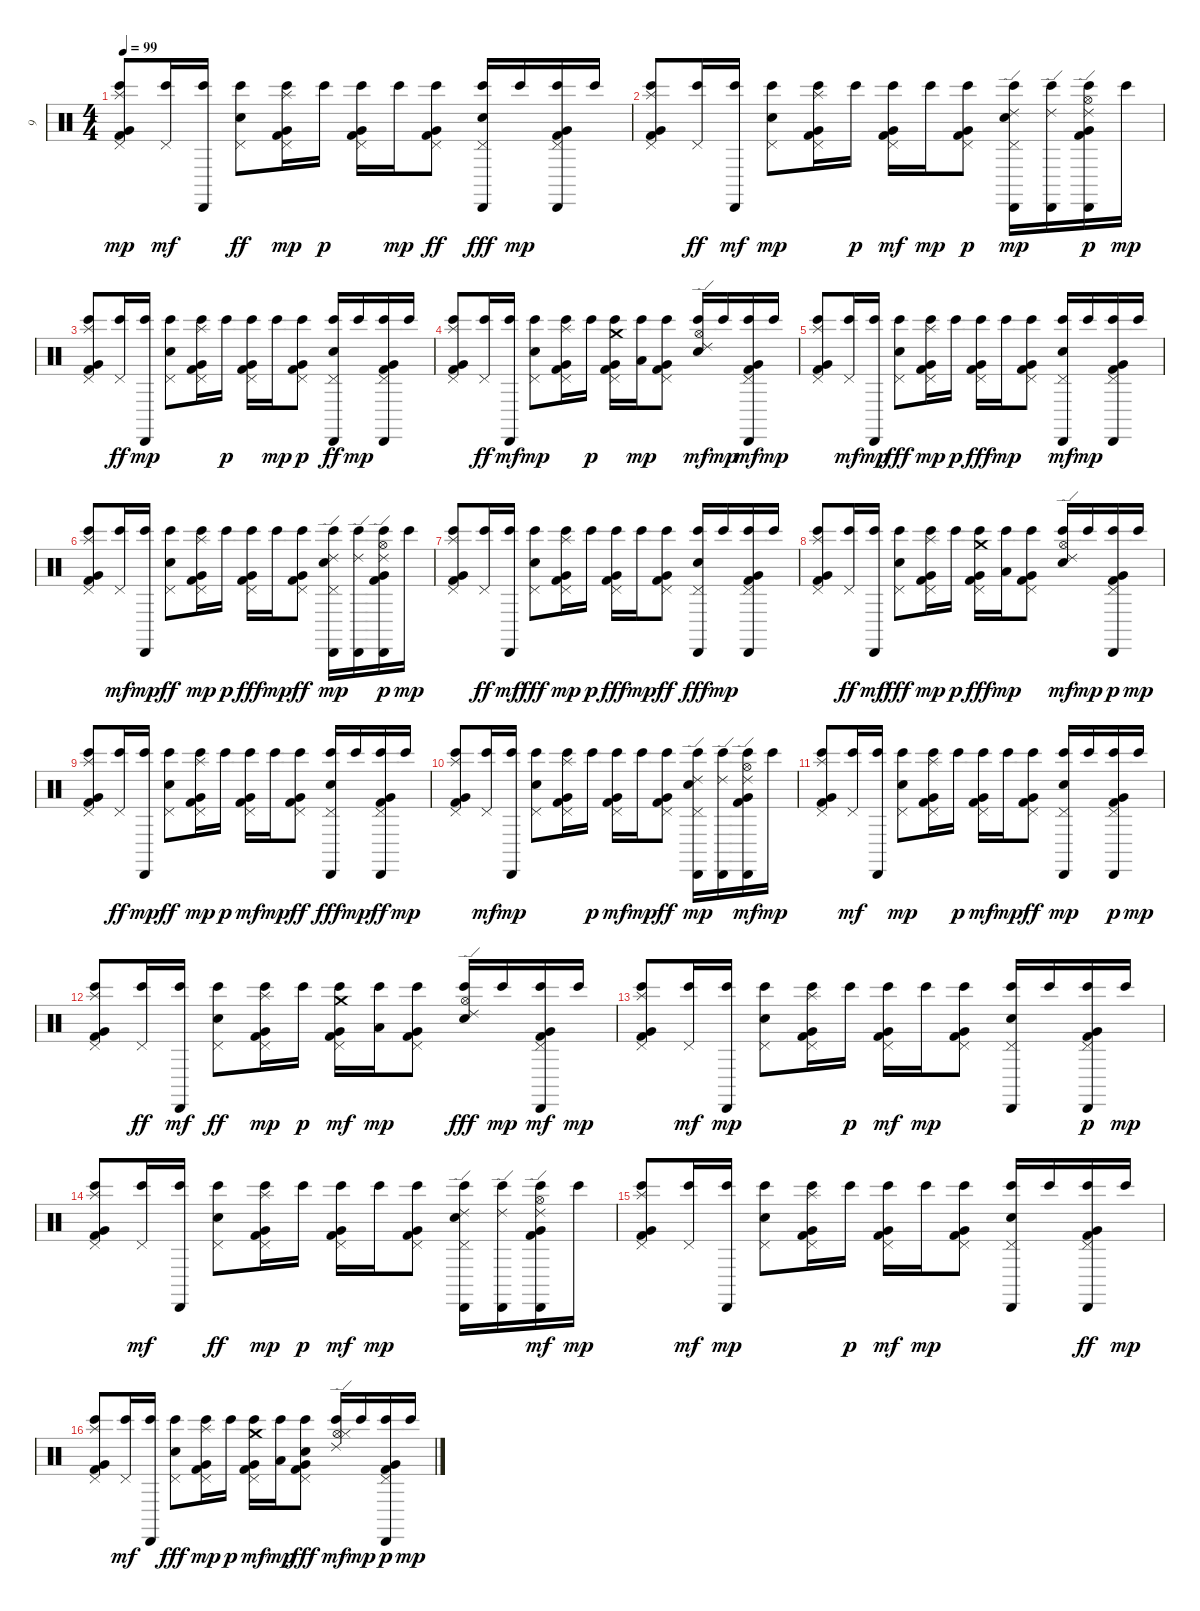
\track ("9" "9") {instrument percussion}
\staff {score}
\articulation defaults
\ts (4 4)
\tempo 99
\clef neutral
\ks c
("Pedal Hi-Hat (hit)" "Very Low Tom (hit)" "Bongo High (hit)" "Kick (hit) 2" "Splash (hit)").8{dy mp} ("Pedal Hi-Hat (hit)" "Bongo High (hit)").16{dy mf} ("Bongo High (hit)" "Cabasa (hit)").16 ("Bongo High (hit)" "Electric Snare (hit)" "Pedal Hi-Hat (hit)").8{dy ff} ("Pedal Hi-Hat (hit)" "Kick (hit) 2" "Bongo High (hit)" "Very Low Tom (hit)" "Splash (hit)").16{dy mp} "Bongo High (hit)".16{dy p} ("Kick (hit) 2" "Bongo High (hit)" "Pedal Hi-Hat (hit)" "Very Low Tom (hit)").16 "Bongo High (hit)".16{dy mp} ("Bongo High (hit)" "Very Low Tom (hit)" "Kick (hit) 2" "Pedal Hi-Hat (hit)").8{dy ff} ("Pedal Hi-Hat (hit)" "Bongo High (hit)" "Cabasa (hit)" "Electric Snare (hit)").16{dy fff} "Bongo High (hit)".16{dy mp} ("Pedal Hi-Hat (hit)" "Kick (hit) 2" "Cabasa (hit)" "Very Low Tom (hit)" "Bongo High (hit)").16 "Bongo High (hit)".16 |
("Bongo High (hit)" "Pedal Hi-Hat (hit)" "Very Low Tom (hit)" "Kick (hit) 2" "Splash (hit)").8 ("Bongo High (hit)" "Pedal Hi-Hat (hit)").16{dy ff} ("Bongo High (hit)" "Cabasa (hit)").16{dy mf} ("Pedal Hi-Hat (hit)" "Electric Snare (hit)" "Bongo High (hit)").8{dy mp} ("Kick (hit) 2" "Very Low Tom (hit)" "Pedal Hi-Hat (hit)" "Bongo High (hit)" "Splash (hit)").16 "Bongo High (hit)".16{dy p} ("Very Low Tom (hit)" "Pedal Hi-Hat (hit)" "Kick (hit) 2" "Bongo High (hit)").16{dy mf} "Bongo High (hit)".16{dy mp} ("Bongo High (hit)" "Pedal Hi-Hat (hit)" "Very Low Tom (hit)" "Kick (hit) 2").8{dy p} ("Pedal Hi-Hat (hit)" "Cabasa (hit)" "Electric Snare (hit)" "Bongo High (hit)" "Ride (edge) 2").16{dy mp} ("Bongo High (hit)" "Ride (edge) 2" "Cabasa (hit)").16 ("Cabasa (hit)" "Hi-Hat (open)" "Ride (edge) 2" "Bongo High (hit)" "Kick (hit) 2" "Very Low Tom (hit)").16{dy p} "Bongo High (hit)".16{dy mp} |
("Bongo High (hit)" "Pedal Hi-Hat (hit)" "Kick (hit) 2" "Very Low Tom (hit)" "Splash (hit)").8 ("Bongo High (hit)" "Pedal Hi-Hat (hit)").16{dy ff} ("Cabasa (hit)" "Bongo High (hit)").16{dy mp} ("Electric Snare (hit)" "Pedal Hi-Hat (hit)" "Bongo High (hit)").8 ("Pedal Hi-Hat (hit)" "Kick (hit) 2" "Bongo High (hit)" "Very Low Tom (hit)" "Splash (hit)").16 "Bongo High (hit)".16{dy p} ("Pedal Hi-Hat (hit)" "Bongo High (hit)" "Kick (hit) 2" "Very Low Tom (hit)").16 "Bongo High (hit)".16{dy mp} ("Bongo High (hit)" "Kick (hit) 2" "Pedal Hi-Hat (hit)" "Very Low Tom (hit)").8{dy p} ("Electric Snare (hit)" "Bongo High (hit)" "Cabasa (hit)" "Pedal Hi-Hat (hit)").16{dy ff} "Bongo High (hit)".16{dy mp} ("Very Low Tom (hit)" "Cabasa (hit)" "Pedal Hi-Hat (hit)" "Kick (hit) 2" "Bongo High (hit)").16 "Bongo High (hit)".16 |
("Bongo High (hit)" "Very Low Tom (hit)" "Kick (hit) 2" "Pedal Hi-Hat (hit)" "Splash (hit)").8 ("Bongo High (hit)" "Pedal Hi-Hat (hit)").16{dy ff} ("Bongo High (hit)" "Cabasa (hit)").16{dy mf} ("Pedal Hi-Hat (hit)" "Electric Snare (hit)" "Bongo High (hit)").8{dy mp} ("Pedal Hi-Hat (hit)" "Very Low Tom (hit)" "Kick (hit) 2" "Bongo High (hit)" "Splash (hit)").16 "Bongo High (hit)".16{dy p} ("Crash medium (hit)" "Pedal Hi-Hat (hit)" "Bongo High (hit)" "Kick (hit) 2" "Very Low Tom (hit)").16 ("Low Tom (hit)" "Bongo High (hit)").16{dy mp} ("Pedal Hi-Hat (hit)" "Kick (hit) 2" "Very Low Tom (hit)" "Bongo High (hit)").8 ("Bongo High (hit)" "Electric Snare (hit)" "Hi-Hat (open)" "Ride (edge) 2").16{dy mf} "Bongo High (hit)".16{dy mp} ("Pedal Hi-Hat (hit)" "Kick (hit) 2" "Very Low Tom (hit)" "Bongo High (hit)" "Cabasa (hit)").16{dy mf} "Bongo High (hit)".16{dy mp} |
("Bongo High (hit)" "Kick (hit) 2" "Pedal Hi-Hat (hit)" "Very Low Tom (hit)" "Splash (hit)").8 ("Pedal Hi-Hat (hit)" "Bongo High (hit)").16{dy mf} ("Cabasa (hit)" "Bongo High (hit)").16{dy mp} ("Bongo High (hit)" "Pedal Hi-Hat (hit)" "Electric Snare (hit)").8{dy fff} ("Kick (hit) 2" "Very Low Tom (hit)" "Pedal Hi-Hat (hit)" "Bongo High (hit)" "Splash (hit)").16{dy mp} "Bongo High (hit)".16{dy p} ("Very Low Tom (hit)" "Bongo High (hit)" "Pedal Hi-Hat (hit)" "Kick (hit) 2").16{dy fff} "Bongo High (hit)".16{dy mp} ("Very Low Tom (hit)" "Pedal Hi-Hat (hit)" "Kick (hit) 2" "Bongo High (hit)").8 ("Electric Snare (hit)" "Bongo High (hit)" "Pedal Hi-Hat (hit)" "Cabasa (hit)").16{dy mf} "Bongo High (hit)".16{dy mp} ("Cabasa (hit)" "Kick (hit) 2" "Very Low Tom (hit)" "Pedal Hi-Hat (hit)" "Bongo High (hit)").16 "Bongo High (hit)".16 |
("Bongo High (hit)" "Kick (hit) 2" "Pedal Hi-Hat (hit)" "Very Low Tom (hit)" "Splash (hit)").8 ("Pedal Hi-Hat (hit)" "Bongo High (hit)").16{dy mf} ("Cabasa (hit)" "Bongo High (hit)").16{dy mp} ("Bongo High (hit)" "Electric Snare (hit)" "Pedal Hi-Hat (hit)").8{dy ff} ("Pedal Hi-Hat (hit)" "Kick (hit) 2" "Very Low Tom (hit)" "Bongo High (hit)" "Splash (hit)").16{dy mp} "Bongo High (hit)".16{dy p} ("Pedal Hi-Hat (hit)" "Bongo High (hit)" "Very Low Tom (hit)" "Kick (hit) 2").16{dy fff} "Bongo High (hit)".16{dy mp} ("Very Low Tom (hit)" "Bongo High (hit)" "Kick (hit) 2" "Pedal Hi-Hat (hit)").8{dy ff} ("Cabasa (hit)" "Electric Snare (hit)" "Ride (edge) 2" "Pedal Hi-Hat (hit)" "Bongo High (hit)").16{dy mp} ("Bongo High (hit)" "Ride (edge) 2" "Cabasa (hit)").16 ("Bongo High (hit)" "Cabasa (hit)" "Ride (edge) 2" "Hi-Hat (open)" "Kick (hit) 2" "Very Low Tom (hit)").16{dy p} "Bongo High (hit)".16{dy mp} |
("Kick (hit) 2" "Bongo High (hit)" "Pedal Hi-Hat (hit)" "Very Low Tom (hit)" "Splash (hit)").8 ("Bongo High (hit)" "Pedal Hi-Hat (hit)").16{dy ff} ("Bongo High (hit)" "Cabasa (hit)").16{dy mf} ("Pedal Hi-Hat (hit)" "Bongo High (hit)" "Electric Snare (hit)").8{dy fff} ("Kick (hit) 2" "Pedal Hi-Hat (hit)" "Very Low Tom (hit)" "Bongo High (hit)" "Splash (hit)").16{dy mp} "Bongo High (hit)".16{dy p} ("Pedal Hi-Hat (hit)" "Very Low Tom (hit)" "Bongo High (hit)" "Kick (hit) 2").16{dy fff} "Bongo High (hit)".16{dy mp} ("Bongo High (hit)" "Very Low Tom (hit)" "Pedal Hi-Hat (hit)" "Kick (hit) 2").8{dy ff} ("Cabasa (hit)" "Pedal Hi-Hat (hit)" "Bongo High (hit)" "Electric Snare (hit)").16{dy fff} "Bongo High (hit)".16{dy mp} ("Cabasa (hit)" "Kick (hit) 2" "Pedal Hi-Hat (hit)" "Very Low Tom (hit)" "Bongo High (hit)").16 "Bongo High (hit)".16 |
("Pedal Hi-Hat (hit)" "Bongo High (hit)" "Kick (hit) 2" "Very Low Tom (hit)" "Splash (hit)").8 ("Bongo High (hit)" "Pedal Hi-Hat (hit)").16{dy ff} ("Bongo High (hit)" "Cabasa (hit)").16{dy mf} ("Bongo High (hit)" "Pedal Hi-Hat (hit)" "Electric Snare (hit)").8{dy fff} ("Kick (hit) 2" "Very Low Tom (hit)" "Pedal Hi-Hat (hit)" "Bongo High (hit)" "Splash (hit)").16{dy mp} "Bongo High (hit)".16{dy p} ("Crash medium (hit)" "Very Low Tom (hit)" "Pedal Hi-Hat (hit)" "Bongo High (hit)" "Kick (hit) 2").16{dy fff} ("Low Tom (hit)" "Bongo High (hit)").16{dy mp} ("Very Low Tom (hit)" "Pedal Hi-Hat (hit)" "Kick (hit) 2" "Bongo High (hit)").8 ("Electric Snare (hit)" "Bongo High (hit)" "Hi-Hat (open)" "Ride (edge) 2").16{dy mf} "Bongo High (hit)".16{dy mp} ("Cabasa (hit)" "Bongo High (hit)" "Pedal Hi-Hat (hit)" "Kick (hit) 2" "Very Low Tom (hit)").16{dy p} "Bongo High (hit)".16{dy mp} |
("Bongo High (hit)" "Very Low Tom (hit)" "Kick (hit) 2" "Pedal Hi-Hat (hit)" "Splash (hit)").8 ("Bongo High (hit)" "Pedal Hi-Hat (hit)").16{dy ff} ("Cabasa (hit)" "Bongo High (hit)").16{dy mp} ("Electric Snare (hit)" "Bongo High (hit)" "Pedal Hi-Hat (hit)").8{dy ff} ("Bongo High (hit)" "Kick (hit) 2" "Pedal Hi-Hat (hit)" "Very Low Tom (hit)" "Splash (hit)").16{dy mp} "Bongo High (hit)".16{dy p} ("Pedal Hi-Hat (hit)" "Very Low Tom (hit)" "Kick (hit) 2" "Bongo High (hit)").16{dy mf} "Bongo High (hit)".16{dy mp} ("Kick (hit) 2" "Very Low Tom (hit)" "Bongo High (hit)" "Pedal Hi-Hat (hit)").8{dy ff} ("Pedal Hi-Hat (hit)" "Cabasa (hit)" "Bongo High (hit)" "Electric Snare (hit)").16{dy fff} "Bongo High (hit)".16{dy mp} ("Bongo High (hit)" "Kick (hit) 2" "Cabasa (hit)" "Very Low Tom (hit)" "Pedal Hi-Hat (hit)").16{dy ff} "Bongo High (hit)".16{dy mp} |
("Kick (hit) 2" "Bongo High (hit)" "Very Low Tom (hit)" "Pedal Hi-Hat (hit)" "Splash (hit)").8 ("Pedal Hi-Hat (hit)" "Bongo High (hit)").16{dy mf} ("Cabasa (hit)" "Bongo High (hit)").16{dy mp} ("Electric Snare (hit)" "Pedal Hi-Hat (hit)" "Bongo High (hit)").8 ("Bongo High (hit)" "Very Low Tom (hit)" "Kick (hit) 2" "Pedal Hi-Hat (hit)" "Splash (hit)").16 "Bongo High (hit)".16{dy p} ("Very Low Tom (hit)" "Pedal Hi-Hat (hit)" "Kick (hit) 2" "Bongo High (hit)").16{dy mf} "Bongo High (hit)".16{dy mp} ("Very Low Tom (hit)" "Bongo High (hit)" "Kick (hit) 2" "Pedal Hi-Hat (hit)").8{dy ff} ("Ride (edge) 2" "Cabasa (hit)" "Pedal Hi-Hat (hit)" "Electric Snare (hit)" "Bongo High (hit)").16{dy mp} ("Bongo High (hit)" "Ride (edge) 2" "Cabasa (hit)").16 ("Hi-Hat (open)" "Kick (hit) 2" "Bongo High (hit)" "Very Low Tom (hit)" "Cabasa (hit)" "Ride (edge) 2").16{dy mf} "Bongo High (hit)".16{dy mp} |
("Very Low Tom (hit)" "Bongo High (hit)" "Kick (hit) 2" "Pedal Hi-Hat (hit)" "Splash (hit)").8 ("Pedal Hi-Hat (hit)" "Bongo High (hit)").16{dy mf} ("Bongo High (hit)" "Cabasa (hit)").16 ("Electric Snare (hit)" "Pedal Hi-Hat (hit)" "Bongo High (hit)").8{dy mp} ("Bongo High (hit)" "Kick (hit) 2" "Very Low Tom (hit)" "Pedal Hi-Hat (hit)" "Splash (hit)").16 "Bongo High (hit)".16{dy p} ("Kick (hit) 2" "Pedal Hi-Hat (hit)" "Very Low Tom (hit)" "Bongo High (hit)").16{dy mf} "Bongo High (hit)".16{dy mp} ("Bongo High (hit)" "Kick (hit) 2" "Very Low Tom (hit)" "Pedal Hi-Hat (hit)").8{dy ff} ("Electric Snare (hit)" "Cabasa (hit)" "Pedal Hi-Hat (hit)" "Bongo High (hit)").16{dy mp} "Bongo High (hit)".16 ("Bongo High (hit)" "Kick (hit) 2" "Cabasa (hit)" "Pedal Hi-Hat (hit)" "Very Low Tom (hit)").16{dy p} "Bongo High (hit)".16{dy mp} |
("Pedal Hi-Hat (hit)" "Kick (hit) 2" "Bongo High (hit)" "Very Low Tom (hit)" "Splash (hit)").8 ("Bongo High (hit)" "Pedal Hi-Hat (hit)").16{dy ff} ("Bongo High (hit)" "Cabasa (hit)").16{dy mf} ("Bongo High (hit)" "Electric Snare (hit)" "Pedal Hi-Hat (hit)").8{dy ff} ("Bongo High (hit)" "Kick (hit) 2" "Pedal Hi-Hat (hit)" "Very Low Tom (hit)" "Splash (hit)").16{dy mp} "Bongo High (hit)".16{dy p} ("Pedal Hi-Hat (hit)" "Crash medium (hit)" "Kick (hit) 2" "Very Low Tom (hit)" "Bongo High (hit)").16{dy mf} ("Bongo High (hit)" "Low Tom (hit)").16{dy mp} ("Very Low Tom (hit)" "Kick (hit) 2" "Pedal Hi-Hat (hit)" "Bongo High (hit)").8 ("Hi-Hat (open)" "Ride (edge) 2" "Bongo High (hit)" "Electric Snare (hit)").16{dy fff} "Bongo High (hit)".16{dy mp} ("Bongo High (hit)" "Kick (hit) 2" "Pedal Hi-Hat (hit)" "Very Low Tom (hit)" "Cabasa (hit)").16{dy mf} "Bongo High (hit)".16{dy mp} |
("Kick (hit) 2" "Bongo High (hit)" "Very Low Tom (hit)" "Pedal Hi-Hat (hit)" "Splash (hit)").8 ("Pedal Hi-Hat (hit)" "Bongo High (hit)").16{dy mf} ("Cabasa (hit)" "Bongo High (hit)").16{dy mp} ("Electric Snare (hit)" "Pedal Hi-Hat (hit)" "Bongo High (hit)").8 ("Bongo High (hit)" "Very Low Tom (hit)" "Kick (hit) 2" "Pedal Hi-Hat (hit)" "Splash (hit)").16 "Bongo High (hit)".16{dy p} ("Very Low Tom (hit)" "Pedal Hi-Hat (hit)" "Kick (hit) 2" "Bongo High (hit)").16{dy mf} "Bongo High (hit)".16{dy mp} ("Pedal Hi-Hat (hit)" "Very Low Tom (hit)" "Kick (hit) 2" "Bongo High (hit)").8 ("Electric Snare (hit)" "Pedal Hi-Hat (hit)" "Cabasa (hit)" "Bongo High (hit)").16 "Bongo High (hit)".16 ("Bongo High (hit)" "Kick (hit) 2" "Cabasa (hit)" "Pedal Hi-Hat (hit)" "Very Low Tom (hit)").16{dy p} "Bongo High (hit)".16{dy mp} |
("Kick (hit) 2" "Very Low Tom (hit)" "Bongo High (hit)" "Pedal Hi-Hat (hit)" "Splash (hit)").8 ("Pedal Hi-Hat (hit)" "Bongo High (hit)").16{dy mf} ("Bongo High (hit)" "Cabasa (hit)").16 ("Electric Snare (hit)" "Bongo High (hit)" "Pedal Hi-Hat (hit)").8{dy ff} ("Very Low Tom (hit)" "Bongo High (hit)" "Pedal Hi-Hat (hit)" "Kick (hit) 2" "Splash (hit)").16{dy mp} "Bongo High (hit)".16{dy p} ("Kick (hit) 2" "Pedal Hi-Hat (hit)" "Very Low Tom (hit)" "Bongo High (hit)").16{dy mf} "Bongo High (hit)".16{dy mp} ("Very Low Tom (hit)" "Pedal Hi-Hat (hit)" "Bongo High (hit)" "Kick (hit) 2").8 ("Cabasa (hit)" "Ride (edge) 2" "Pedal Hi-Hat (hit)" "Electric Snare (hit)" "Bongo High (hit)").16 ("Cabasa (hit)" "Bongo High (hit)" "Ride (edge) 2").16 ("Bongo High (hit)" "Hi-Hat (open)" "Very Low Tom (hit)" "Kick (hit) 2" "Cabasa (hit)" "Ride (edge) 2").16{dy mf} "Bongo High (hit)".16{dy mp} |
("Kick (hit) 2" "Very Low Tom (hit)" "Bongo High (hit)" "Pedal Hi-Hat (hit)" "Splash (hit)").8 ("Pedal Hi-Hat (hit)" "Bongo High (hit)").16{dy mf} ("Cabasa (hit)" "Bongo High (hit)").16{dy mp} ("Pedal Hi-Hat (hit)" "Electric Snare (hit)" "Bongo High (hit)").8 ("Bongo High (hit)" "Very Low Tom (hit)" "Kick (hit) 2" "Pedal Hi-Hat (hit)" "Splash (hit)").16 "Bongo High (hit)".16{dy p} ("Pedal Hi-Hat (hit)" "Very Low Tom (hit)" "Kick (hit) 2" "Bongo High (hit)").16{dy mf} "Bongo High (hit)".16{dy mp} ("Kick (hit) 2" "Very Low Tom (hit)" "Pedal Hi-Hat (hit)" "Bongo High (hit)").8 ("Pedal Hi-Hat (hit)" "Electric Snare (hit)" "Cabasa (hit)" "Bongo High (hit)").16 "Bongo High (hit)".16 ("Bongo High (hit)" "Very Low Tom (hit)" "Kick (hit) 2" "Cabasa (hit)" "Pedal Hi-Hat (hit)").16{dy ff} "Bongo High (hit)".16{dy mp} |
("Kick (hit) 2" "Pedal Hi-Hat (hit)" "Bongo High (hit)" "Very Low Tom (hit)" "Splash (hit)").8 ("Pedal Hi-Hat (hit)" "Bongo High (hit)").16{dy mf} ("Bongo High (hit)" "Cabasa (hit)").16 ("Pedal Hi-Hat (hit)" "Bongo High (hit)" "Electric Snare (hit)").8{dy fff} ("Very Low Tom (hit)" "Bongo High (hit)" "Kick (hit) 2" "Pedal Hi-Hat (hit)" "Splash (hit)").16{dy mp} "Bongo High (hit)".16{dy p} ("Pedal Hi-Hat (hit)" "Very Low Tom (hit)" "Kick (hit) 2" "Crash medium (hit)" "Bongo High (hit)").16{dy mf} ("Bongo High (hit)" "Low Tom (hit)").16{dy mp} ("Kick (hit) 2" "Pedal Hi-Hat (hit)" "Bongo High (hit)" "Very Low Tom (hit)" "Electric Snare (hit)").8{dy fff} ("Hi-Hat (open)" "Bongo High (hit)" "Hi-Hat (closed)" "Ride (edge) 2").16{dy mf} "Bongo High (hit)".16{dy mp} ("Bongo High (hit)" "Cabasa (hit)" "Kick (hit) 2" "Pedal Hi-Hat (hit)" "Very Low Tom (hit)").16{dy p} "Bongo High (hit)".16{dy mp}
